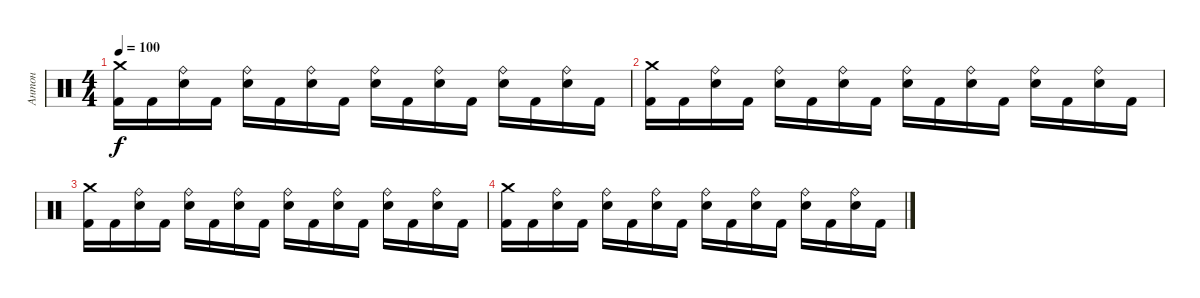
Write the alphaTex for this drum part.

\track ("Антон" "Антон") {instrument percussion}
\staff {score}
\articulation defaults
\ts (4 4)
\tempo 100
\clef neutral
\ks c
("Crash medium (hit)" "Kick (hit) 2").16{dy f} "Kick (hit) 2".16 ("Ride (bell)" "Electric Snare (hit)").16 "Kick (hit) 2".16 ("Ride (bell)" "Electric Snare (hit)").16 "Kick (hit) 2".16 ("Ride (bell)" "Electric Snare (hit)").16 "Kick (hit) 2".16 ("Ride (bell)" "Electric Snare (hit)").16 "Kick (hit) 2".16 ("Ride (bell)" "Electric Snare (hit)").16 "Kick (hit) 2".16 ("Ride (bell)" "Electric Snare (hit)").16 "Kick (hit) 2".16 ("Ride (bell)" "Electric Snare (hit)").16 "Kick (hit) 2".16 |
("Crash medium (hit)" "Kick (hit) 2").16 "Kick (hit) 2".16 ("Ride (bell)" "Electric Snare (hit)").16 "Kick (hit) 2".16 ("Ride (bell)" "Electric Snare (hit)").16 "Kick (hit) 2".16 ("Ride (bell)" "Electric Snare (hit)").16 "Kick (hit) 2".16 ("Ride (bell)" "Electric Snare (hit)").16 "Kick (hit) 2".16 ("Ride (bell)" "Electric Snare (hit)").16 "Kick (hit) 2".16 ("Ride (bell)" "Electric Snare (hit)").16 "Kick (hit) 2".16 ("Ride (bell)" "Electric Snare (hit)").16 "Kick (hit) 2".16 |
("Crash medium (hit)" "Kick (hit) 2").16 "Kick (hit) 2".16 ("Ride (bell)" "Electric Snare (hit)").16 "Kick (hit) 2".16 ("Ride (bell)" "Electric Snare (hit)").16 "Kick (hit) 2".16 ("Ride (bell)" "Electric Snare (hit)").16 "Kick (hit) 2".16 ("Ride (bell)" "Electric Snare (hit)").16 "Kick (hit) 2".16 ("Ride (bell)" "Electric Snare (hit)").16 "Kick (hit) 2".16 ("Ride (bell)" "Electric Snare (hit)").16 "Kick (hit) 2".16 ("Ride (bell)" "Electric Snare (hit)").16 "Kick (hit) 2".16 |
("Crash medium (hit)" "Kick (hit) 2").16 "Kick (hit) 2".16 ("Ride (bell)" "Electric Snare (hit)").16 "Kick (hit) 2".16 ("Ride (bell)" "Electric Snare (hit)").16 "Kick (hit) 2".16 ("Ride (bell)" "Electric Snare (hit)").16 "Kick (hit) 2".16 ("Ride (bell)" "Electric Snare (hit)").16 "Kick (hit) 2".16 ("Ride (bell)" "Electric Snare (hit)").16 "Kick (hit) 2".16 ("Ride (bell)" "Electric Snare (hit)").16 "Kick (hit) 2".16 ("Ride (bell)" "Electric Snare (hit)").16 "Kick (hit) 2".16
